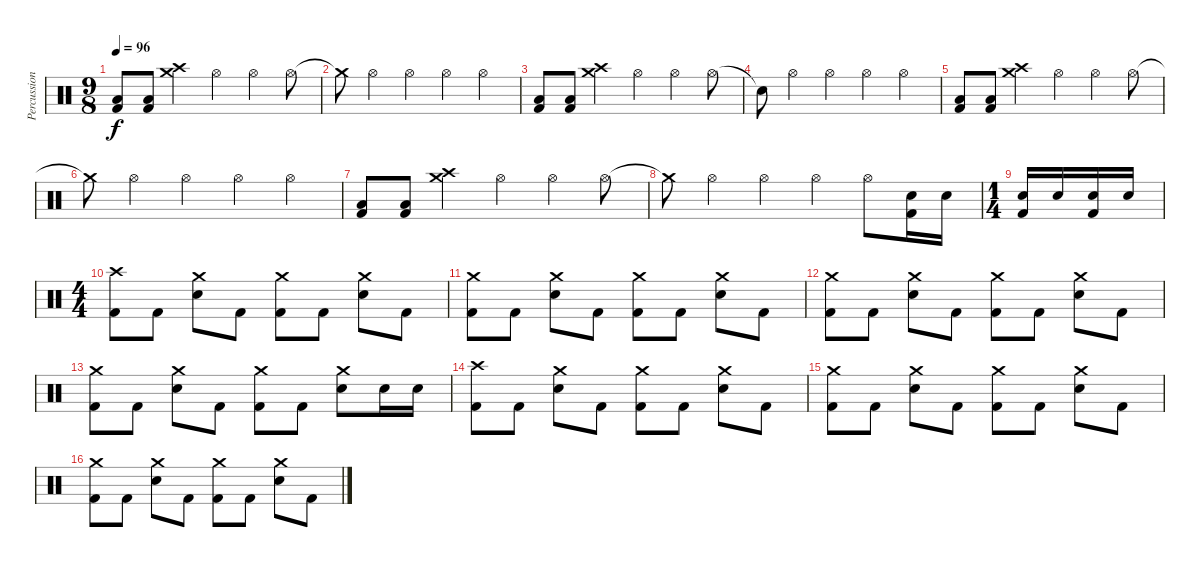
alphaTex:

\track ("Percussion" "Percussion") {instrument percussion}
\staff {score}
\articulation defaults
\ts (9 8)
\tempo 96
\clef neutral
\ks c
("Low Floor Tom (hit)" "Kick (hit) 2").8{dy f} ("Low Floor Tom (hit)" "Kick (hit) 2").8 ("Crash medium (hit)" "Crash high (hit)").4 "Hi-Hat (open)".4 "Hi-Hat (open)".4 "Hi-Hat (open)".8 |
"Crash medium (hit)"{t}.8 "Hi-Hat (open)".4 "Hi-Hat (open)".4 "Hi-Hat (open)".4 "Hi-Hat (open)".4 |
("Low Floor Tom (hit)" "Kick (hit) 2").8 ("Low Floor Tom (hit)" "Kick (hit) 2").8 ("Crash medium (hit)" "Crash high (hit)").4 "Hi-Hat (open)".4 "Hi-Hat (open)".4 "Hi-Hat (open)".8 |
"Snare (hit)"{t}.8 "Hi-Hat (open)".4 "Hi-Hat (open)".4 "Hi-Hat (open)".4 "Hi-Hat (open)".4 |
("Low Floor Tom (hit)" "Kick (hit) 2").8 ("Low Floor Tom (hit)" "Kick (hit) 2").8 ("Crash medium (hit)" "Crash high (hit)").4 "Hi-Hat (open)".4 "Hi-Hat (open)".4 "Hi-Hat (open)".8 |
"Crash medium (hit)"{t}.8 "Hi-Hat (open)".4 "Hi-Hat (open)".4 "Hi-Hat (open)".4 "Hi-Hat (open)".4 |
("Low Floor Tom (hit)" "Kick (hit) 2").8 ("Low Floor Tom (hit)" "Kick (hit) 2").8 ("Crash medium (hit)" "Crash high (hit)").4 "Hi-Hat (open)".4 "Hi-Hat (open)".4 "Hi-Hat (open)".8 |
"Crash medium (hit)"{t}.8 "Hi-Hat (open)".4 "Hi-Hat (open)".4 "Hi-Hat (open)".4 "Hi-Hat (open)".8 ("Electric Snare (hit)" "Kick (hit) 2").16 "Electric Snare (hit)".16 |
\ts (1 4)
("Electric Snare (hit)" "Kick (hit) 2").16 "Electric Snare (hit)".16 ("Electric Snare (hit)" "Kick (hit) 2").16 "Electric Snare (hit)".16 |
\ts (4 4)
("Crash high (hit)" "Kick (hit) 2").8 "Kick (hit) 2".8 ("Crash medium (hit)" "Electric Snare (hit)").8 "Kick (hit) 2".8 ("Crash medium (hit)" "Kick (hit) 2").8 "Kick (hit) 2".8 ("Crash medium (hit)" "Electric Snare (hit)").8 "Kick (hit) 2".8 |
("Crash medium (hit)" "Kick (hit) 2").8 "Kick (hit) 2".8 ("Crash medium (hit)" "Electric Snare (hit)").8 "Kick (hit) 2".8 ("Crash medium (hit)" "Kick (hit) 2").8 "Kick (hit) 2".8 ("Crash medium (hit)" "Electric Snare (hit)").8 "Kick (hit) 2".8 |
("Crash medium (hit)" "Kick (hit) 2").8 "Kick (hit) 2".8 ("Crash medium (hit)" "Electric Snare (hit)").8 "Kick (hit) 2".8 ("Crash medium (hit)" "Kick (hit) 2").8 "Kick (hit) 2".8 ("Crash medium (hit)" "Electric Snare (hit)").8 "Kick (hit) 2".8 |
("Crash medium (hit)" "Kick (hit) 2").8 "Kick (hit) 2".8 ("Crash medium (hit)" "Electric Snare (hit)").8 "Kick (hit) 2".8 ("Crash medium (hit)" "Kick (hit) 2").8 "Kick (hit) 2".8 ("Crash medium (hit)" "Electric Snare (hit)").8 "Electric Snare (hit)".16 "Electric Snare (hit)".16 |
("Crash high (hit)" "Kick (hit) 2").8 "Kick (hit) 2".8 ("Crash medium (hit)" "Electric Snare (hit)").8 "Kick (hit) 2".8 ("Crash medium (hit)" "Kick (hit) 2").8 "Kick (hit) 2".8 ("Crash medium (hit)" "Electric Snare (hit)").8 "Kick (hit) 2".8 |
("Crash medium (hit)" "Kick (hit) 2").8 "Kick (hit) 2".8 ("Crash medium (hit)" "Electric Snare (hit)").8 "Kick (hit) 2".8 ("Crash medium (hit)" "Kick (hit) 2").8 "Kick (hit) 2".8 ("Crash medium (hit)" "Electric Snare (hit)").8 "Kick (hit) 2".8 |
("Crash medium (hit)" "Kick (hit) 2").8 "Kick (hit) 2".8 ("Crash medium (hit)" "Electric Snare (hit)").8 "Kick (hit) 2".8 ("Crash medium (hit)" "Kick (hit) 2").8 "Kick (hit) 2".8 ("Crash medium (hit)" "Electric Snare (hit)").8 "Kick (hit) 2".8
